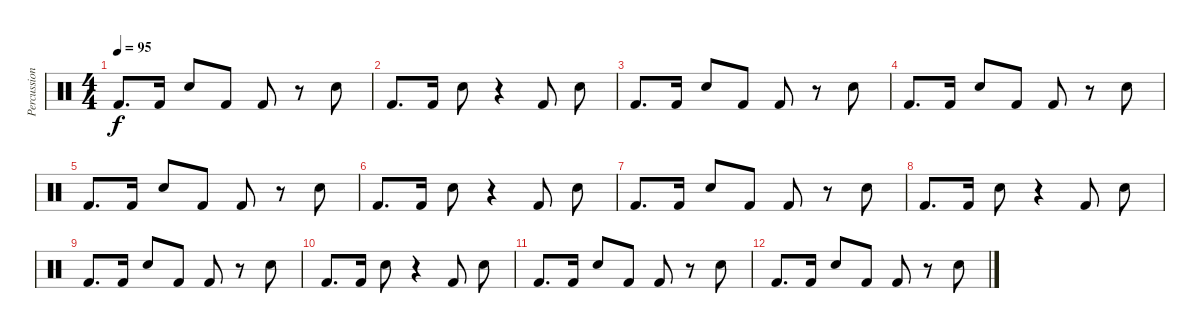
\track ("Percussion" "Percussion") {instrument percussion}
\staff {score}
\articulation defaults
\ts (4 4)
\tempo 95
\clef neutral
\ks c "Kick (hit) 2".8{d dy f} "Kick (hit) 2".16 "Snare (hit) 2".8 "Kick (hit) 2".8 "Kick (hit) 2".8
r.8 "Snare (hit) 2".8 |
"Kick (hit) 2".8{d} "Kick (hit) 2".16 "Snare (hit) 2".8 r.4 "Kick (hit) 2".8 "Snare (hit) 2".8 |
"Kick (hit) 2".8{d} "Kick (hit) 2".16 "Snare (hit) 2".8 "Kick (hit) 2".8 "Kick (hit) 2".8 r.8 "Snare (hit) 2".8 |
"Kick (hit) 2".8{d} "Kick (hit) 2".16 "Snare (hit) 2".8 "Kick (hit) 2".8 "Kick (hit) 2".8 r.8 "Snare (hit) 2".8 |
"Kick (hit) 2".8{d} "Kick (hit) 2".16 "Snare (hit) 2".8 "Kick (hit) 2".8 "Kick (hit) 2".8 r.8 "Snare (hit) 2".8 |
"Kick (hit) 2".8{d} "Kick (hit) 2".16 "Snare (hit) 2".8 r.4 "Kick (hit) 2".8 "Snare (hit) 2".8 |
"Kick (hit) 2".8{d} "Kick (hit) 2".16 "Snare (hit) 2".8 "Kick (hit) 2".8 "Kick (hit) 2".8 r.8 "Snare (hit) 2".8 |
"Kick (hit) 2".8{d} "Kick (hit) 2".16 "Snare (hit) 2".8 r.4 "Kick (hit) 2".8 "Snare (hit) 2".8 |
"Kick (hit) 2".8{d} "Kick (hit) 2".16 "Snare (hit) 2".8 "Kick (hit) 2".8 "Kick (hit) 2".8 r.8 "Snare (hit) 2".8 |
"Kick (hit) 2".8{d} "Kick (hit) 2".16 "Snare (hit) 2".8 r.4 "Kick (hit) 2".8 "Snare (hit) 2".8 |
"Kick (hit) 2".8{d} "Kick (hit) 2".16 "Snare (hit) 2".8 "Kick (hit) 2".8 "Kick (hit) 2".8 r.8 "Snare (hit) 2".8 |
"Kick (hit) 2".8{d} "Kick (hit) 2".16 "Snare (hit) 2".8 "Kick (hit) 2".8 "Kick (hit) 2".8 r.8 "Snare (hit) 2".8
